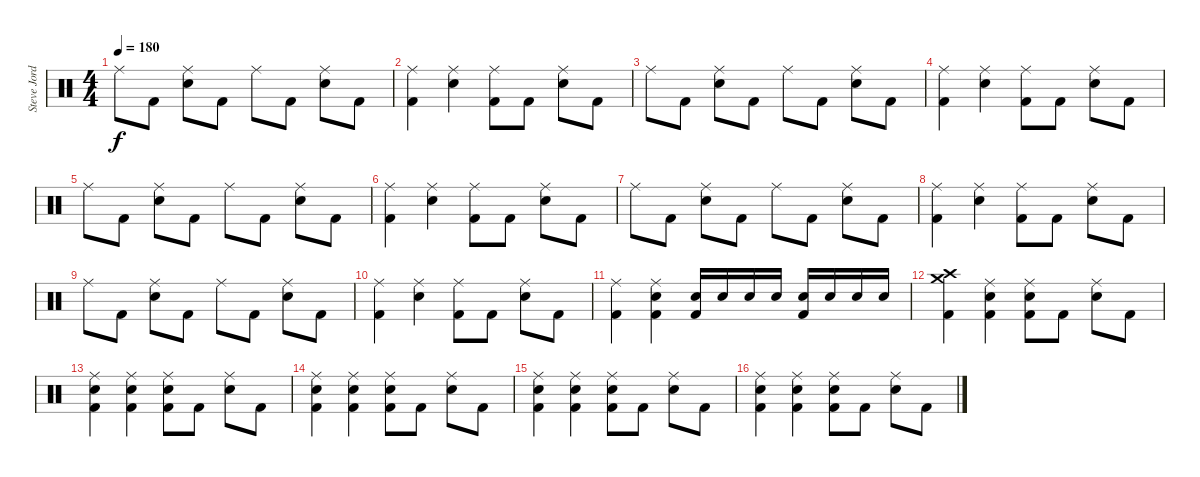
\track ("Steve Jordan - Drums" "Steve Jord") {instrument percussion}
\staff {score}
\articulation defaults
\ts (4 4)
\tempo 180
\clef neutral
\ks c "Ride (middle)".8{dy f} "Kick (hit) 2".8
("Ride (middle)" "Snare (hit) 2").8 "Kick (hit) 2".8 "Ride (middle)".8 "Kick (hit) 2".8 ("Ride (middle)" "Snare (hit) 2").8 "Kick (hit) 2".8 |
("Ride (middle)" "Kick (hit) 2").4 ("Ride (middle)" "Snare (hit) 2").4 ("Ride (middle)" "Kick (hit) 2").8 "Kick (hit) 2".8 ("Ride (middle)" "Snare (hit) 2").8 "Kick (hit) 2".8 |
"Ride (middle)".8 "Kick (hit) 2".8 ("Ride (middle)" "Snare (hit) 2").8 "Kick (hit) 2".8 "Ride (middle)".8 "Kick (hit) 2".8 ("Ride (middle)" "Snare (hit) 2").8 "Kick (hit) 2".8 |
("Ride (middle)" "Kick (hit) 2").4 ("Ride (middle)" "Snare (hit) 2").4 ("Ride (middle)" "Kick (hit) 2").8 "Kick (hit) 2".8 ("Ride (middle)" "Snare (hit) 2").8 "Kick (hit) 2".8 |
"Ride (middle)".8 "Kick (hit) 2".8 ("Ride (middle)" "Snare (hit) 2").8 "Kick (hit) 2".8 "Ride (middle)".8 "Kick (hit) 2".8 ("Ride (middle)" "Snare (hit) 2").8 "Kick (hit) 2".8 |
("Ride (middle)" "Kick (hit) 2").4 ("Ride (middle)" "Snare (hit) 2").4 ("Ride (middle)" "Kick (hit) 2").8 "Kick (hit) 2".8 ("Ride (middle)" "Snare (hit) 2").8 "Kick (hit) 2".8 |
"Ride (middle)".8 "Kick (hit) 2".8 ("Ride (middle)" "Snare (hit) 2").8 "Kick (hit) 2".8 "Ride (middle)".8 "Kick (hit) 2".8 ("Ride (middle)" "Snare (hit) 2").8 "Kick (hit) 2".8 |
("Ride (middle)" "Kick (hit) 2").4 ("Ride (middle)" "Snare (hit) 2").4 ("Ride (middle)" "Kick (hit) 2").8 "Kick (hit) 2".8 ("Ride (middle)" "Snare (hit) 2").8 "Kick (hit) 2".8 |
"Ride (middle)".8 "Kick (hit) 2".8 ("Ride (middle)" "Snare (hit) 2").8 "Kick (hit) 2".8 "Ride (middle)".8 "Kick (hit) 2".8 ("Ride (middle)" "Snare (hit) 2").8 "Kick (hit) 2".8 |
("Ride (middle)" "Kick (hit) 2").4 ("Ride (middle)" "Snare (hit) 2").4 ("Ride (middle)" "Kick (hit) 2").8 "Kick (hit) 2".8 ("Ride (middle)" "Snare (hit) 2").8 "Kick (hit) 2".8 |
("Ride (middle)" "Kick (hit) 2").4 ("Ride (middle)" "Snare (hit) 2" "Kick (hit) 2").4 ("Snare (hit) 2" "Kick (hit) 2").16 "Snare (hit) 2".16 "Snare (hit) 2".16 "Snare (hit) 2".16 ("Snare (hit) 2" "Kick (hit) 2").16 "Snare (hit) 2".16 "Snare (hit) 2".16 "Snare (hit) 2".16 |
("Crash medium (hit)" "Crash high (hit)" "Kick (hit) 2").4 ("Ride (middle)" "Snare (hit) 2" "Kick (hit) 2").4 ("Ride (middle)" "Snare (hit) 2" "Kick (hit) 2").8 "Kick (hit) 2".8 ("Ride (middle)" "Snare (hit) 2").8 "Kick (hit) 2".8 |
("Ride (middle)" "Snare (hit) 2" "Kick (hit) 2").4 ("Ride (middle)" "Snare (hit) 2" "Kick (hit) 2").4 ("Ride (middle)" "Snare (hit) 2" "Kick (hit) 2").8 "Kick (hit) 2".8 ("Ride (middle)" "Snare (hit) 2").8 "Kick (hit) 2".8 |
("Ride (middle)" "Snare (hit) 2" "Kick (hit) 2").4 ("Ride (middle)" "Snare (hit) 2" "Kick (hit) 2").4 ("Ride (middle)" "Snare (hit) 2" "Kick (hit) 2").8 "Kick (hit) 2".8 ("Ride (middle)" "Snare (hit) 2").8 "Kick (hit) 2".8 |
("Ride (middle)" "Snare (hit) 2" "Kick (hit) 2").4 ("Ride (middle)" "Snare (hit) 2" "Kick (hit) 2").4 ("Ride (middle)" "Snare (hit) 2" "Kick (hit) 2").8 "Kick (hit) 2".8 ("Ride (middle)" "Snare (hit) 2").8 "Kick (hit) 2".8 |
("Ride (middle)" "Snare (hit) 2" "Kick (hit) 2").4 ("Ride (middle)" "Snare (hit) 2" "Kick (hit) 2").4 ("Ride (middle)" "Snare (hit) 2" "Kick (hit) 2").8 "Kick (hit) 2".8 ("Ride (middle)" "Snare (hit) 2").8 "Kick (hit) 2".8
